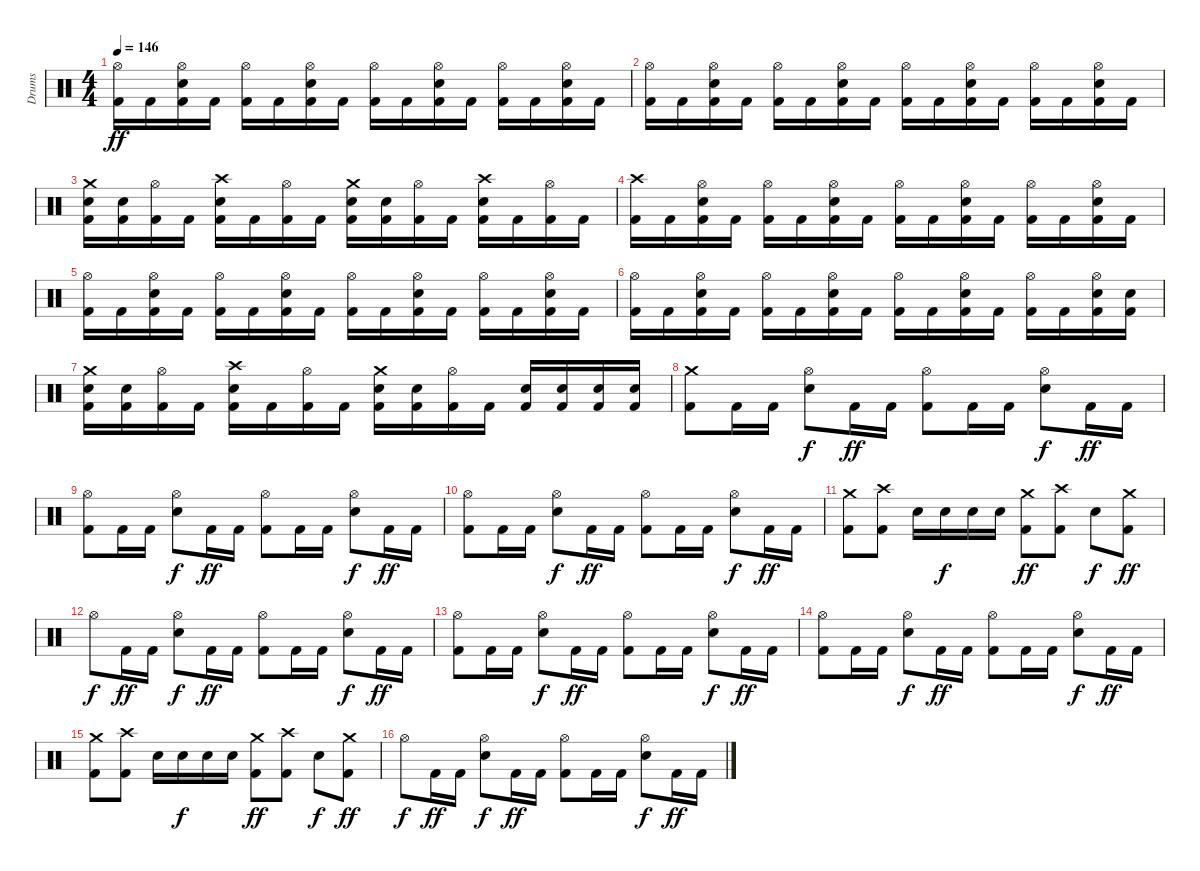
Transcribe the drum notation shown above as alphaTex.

\track ("Drums" "Drums") {instrument percussion}
\staff {score}
\articulation defaults
\ts (4 4)
\tempo 146
\clef neutral
\ks c
("Kick (hit) 2" "Hi-Hat (open)").16{dy ff} "Kick (hit) 2".16 ("Kick (hit) 2" "Electric Snare (hit)" "Hi-Hat (open)").16 "Kick (hit) 2".16 ("Kick (hit) 2" "Hi-Hat (open)").16 "Kick (hit) 2".16 ("Kick (hit) 2" "Electric Snare (hit)" "Hi-Hat (open)").16 "Kick (hit) 2".16 ("Kick (hit) 2" "Hi-Hat (open)").16 "Kick (hit) 2".16 ("Kick (hit) 2" "Electric Snare (hit)" "Hi-Hat (open)").16 "Kick (hit) 2".16 ("Kick (hit) 2" "Hi-Hat (open)").16 "Kick (hit) 2".16 ("Kick (hit) 2" "Electric Snare (hit)" "Hi-Hat (open)").16 "Kick (hit) 2".16 |
("Kick (hit) 2" "Hi-Hat (open)").16 "Kick (hit) 2".16 ("Kick (hit) 2" "Electric Snare (hit)" "Hi-Hat (open)").16 "Kick (hit) 2".16 ("Kick (hit) 2" "Hi-Hat (open)").16 "Kick (hit) 2".16 ("Kick (hit) 2" "Electric Snare (hit)" "Hi-Hat (open)").16 "Kick (hit) 2".16 ("Kick (hit) 2" "Hi-Hat (open)").16 "Kick (hit) 2".16 ("Kick (hit) 2" "Electric Snare (hit)" "Hi-Hat (open)").16 "Kick (hit) 2".16 ("Kick (hit) 2" "Hi-Hat (open)").16 "Kick (hit) 2".16 ("Kick (hit) 2" "Electric Snare (hit)" "Hi-Hat (open)").16 "Kick (hit) 2".16 |
("Kick (hit) 2" "Electric Snare (hit)" "Crash medium (hit)").16 ("Kick (hit) 2" "Electric Snare (hit)").16 ("Kick (hit) 2" "Hi-Hat (open)").16 "Kick (hit) 2".16 ("Kick (hit) 2" "Electric Snare (hit)" "Crash high (hit)").16 "Kick (hit) 2".16 ("Kick (hit) 2" "Hi-Hat (open)").16 "Kick (hit) 2".16 ("Kick (hit) 2" "Electric Snare (hit)" "Crash medium (hit)").16 ("Kick (hit) 2" "Electric Snare (hit)").16 ("Kick (hit) 2" "Hi-Hat (open)").16 "Kick (hit) 2".16 ("Kick (hit) 2" "Electric Snare (hit)" "Crash high (hit)").16 "Kick (hit) 2".16 ("Kick (hit) 2" "Hi-Hat (open)").16 "Kick (hit) 2".16 |
("Kick (hit) 2" "Crash high (hit)").16 "Kick (hit) 2".16 ("Kick (hit) 2" "Electric Snare (hit)" "Hi-Hat (open)").16 "Kick (hit) 2".16 ("Kick (hit) 2" "Hi-Hat (open)").16 "Kick (hit) 2".16 ("Kick (hit) 2" "Electric Snare (hit)" "Hi-Hat (open)").16 "Kick (hit) 2".16 ("Kick (hit) 2" "Hi-Hat (open)").16 "Kick (hit) 2".16 ("Kick (hit) 2" "Electric Snare (hit)" "Hi-Hat (open)").16 "Kick (hit) 2".16 ("Kick (hit) 2" "Hi-Hat (open)").16 "Kick (hit) 2".16 ("Kick (hit) 2" "Electric Snare (hit)" "Hi-Hat (open)").16 "Kick (hit) 2".16 |
("Kick (hit) 2" "Hi-Hat (open)").16 "Kick (hit) 2".16 ("Kick (hit) 2" "Electric Snare (hit)" "Hi-Hat (open)").16 "Kick (hit) 2".16 ("Kick (hit) 2" "Hi-Hat (open)").16 "Kick (hit) 2".16 ("Kick (hit) 2" "Electric Snare (hit)" "Hi-Hat (open)").16 "Kick (hit) 2".16 ("Kick (hit) 2" "Hi-Hat (open)").16 "Kick (hit) 2".16 ("Kick (hit) 2" "Electric Snare (hit)" "Hi-Hat (open)").16 "Kick (hit) 2".16 ("Kick (hit) 2" "Hi-Hat (open)").16 "Kick (hit) 2".16 ("Kick (hit) 2" "Electric Snare (hit)" "Hi-Hat (open)").16 "Kick (hit) 2".16 |
("Kick (hit) 2" "Hi-Hat (open)").16 "Kick (hit) 2".16 ("Kick (hit) 2" "Electric Snare (hit)" "Hi-Hat (open)").16 "Kick (hit) 2".16 ("Kick (hit) 2" "Hi-Hat (open)").16 "Kick (hit) 2".16 ("Kick (hit) 2" "Electric Snare (hit)" "Hi-Hat (open)").16 "Kick (hit) 2".16 ("Kick (hit) 2" "Hi-Hat (open)").16 "Kick (hit) 2".16 ("Kick (hit) 2" "Electric Snare (hit)" "Hi-Hat (open)").16 "Kick (hit) 2".16 ("Kick (hit) 2" "Hi-Hat (open)").16 "Kick (hit) 2".16 ("Kick (hit) 2" "Electric Snare (hit)" "Hi-Hat (open)").16 ("Kick (hit) 2" "Electric Snare (hit)").16 |
("Kick (hit) 2" "Electric Snare (hit)" "Crash medium (hit)").16 ("Kick (hit) 2" "Electric Snare (hit)").16 ("Kick (hit) 2" "Hi-Hat (open)").16 "Kick (hit) 2".16 ("Kick (hit) 2" "Electric Snare (hit)" "Crash high (hit)").16 "Kick (hit) 2".16 ("Kick (hit) 2" "Hi-Hat (open)").16 "Kick (hit) 2".16 ("Kick (hit) 2" "Electric Snare (hit)" "Crash medium (hit)").16 ("Kick (hit) 2" "Electric Snare (hit)").16 ("Kick (hit) 2" "Hi-Hat (open)").16 "Kick (hit) 2".16 ("Kick (hit) 2" "Electric Snare (hit)").16 ("Kick (hit) 2" "Electric Snare (hit)").16 ("Kick (hit) 2" "Electric Snare (hit)").16 ("Kick (hit) 2" "Electric Snare (hit)").16 |
("Kick (hit) 2" "Crash medium (hit)").8 "Kick (hit) 2".16 "Kick (hit) 2".16 ("Electric Snare (hit)" "Hi-Hat (open)").8{dy f} "Kick (hit) 2".16{dy ff} "Kick (hit) 2".16 ("Kick (hit) 2" "Hi-Hat (open)").8 "Kick (hit) 2".16 "Kick (hit) 2".16 ("Electric Snare (hit)" "Hi-Hat (open)").8{dy f} "Kick (hit) 2".16{dy ff} "Kick (hit) 2".16 |
("Kick (hit) 2" "Hi-Hat (open)").8 "Kick (hit) 2".16 "Kick (hit) 2".16 ("Electric Snare (hit)" "Hi-Hat (open)").8{dy f} "Kick (hit) 2".16{dy ff} "Kick (hit) 2".16 ("Kick (hit) 2" "Hi-Hat (open)").8 "Kick (hit) 2".16 "Kick (hit) 2".16 ("Electric Snare (hit)" "Hi-Hat (open)").8{dy f} "Kick (hit) 2".16{dy ff} "Kick (hit) 2".16 |
("Kick (hit) 2" "Hi-Hat (open)").8 "Kick (hit) 2".16 "Kick (hit) 2".16 ("Electric Snare (hit)" "Hi-Hat (open)").8{dy f} "Kick (hit) 2".16{dy ff} "Kick (hit) 2".16 ("Kick (hit) 2" "Hi-Hat (open)").8 "Kick (hit) 2".16 "Kick (hit) 2".16 ("Electric Snare (hit)" "Hi-Hat (open)").8{dy f} "Kick (hit) 2".16{dy ff} "Kick (hit) 2".16 |
("Kick (hit) 2" "Crash medium (hit)").8 ("Kick (hit) 2" "Crash high (hit)").8 "Electric Snare (hit)".16 "Electric Snare (hit)".16{dy f} "Electric Snare (hit)".16 "Electric Snare (hit)".16 ("Kick (hit) 2" "Crash medium (hit)").8{dy ff} ("Kick (hit) 2" "Crash high (hit)").8 "Electric Snare (hit)".8{dy f} ("Kick (hit) 2" "Crash medium (hit)").8{dy ff} |
"Hi-Hat (open)".8{dy f} "Kick (hit) 2".16{dy ff} "Kick (hit) 2".16 ("Electric Snare (hit)" "Hi-Hat (open)").8{dy f} "Kick (hit) 2".16{dy ff} "Kick (hit) 2".16 ("Kick (hit) 2" "Hi-Hat (open)").8 "Kick (hit) 2".16 "Kick (hit) 2".16 ("Electric Snare (hit)" "Hi-Hat (open)").8{dy f} "Kick (hit) 2".16{dy ff} "Kick (hit) 2".16 |
("Kick (hit) 2" "Hi-Hat (open)").8 "Kick (hit) 2".16 "Kick (hit) 2".16 ("Electric Snare (hit)" "Hi-Hat (open)").8{dy f} "Kick (hit) 2".16{dy ff} "Kick (hit) 2".16 ("Kick (hit) 2" "Hi-Hat (open)").8 "Kick (hit) 2".16 "Kick (hit) 2".16 ("Electric Snare (hit)" "Hi-Hat (open)").8{dy f} "Kick (hit) 2".16{dy ff} "Kick (hit) 2".16 |
("Kick (hit) 2" "Hi-Hat (open)").8 "Kick (hit) 2".16 "Kick (hit) 2".16 ("Electric Snare (hit)" "Hi-Hat (open)").8{dy f} "Kick (hit) 2".16{dy ff} "Kick (hit) 2".16 ("Kick (hit) 2" "Hi-Hat (open)").8 "Kick (hit) 2".16 "Kick (hit) 2".16 ("Electric Snare (hit)" "Hi-Hat (open)").8{dy f} "Kick (hit) 2".16{dy ff} "Kick (hit) 2".16 |
("Kick (hit) 2" "Crash medium (hit)").8 ("Kick (hit) 2" "Crash high (hit)").8 "Electric Snare (hit)".16 "Electric Snare (hit)".16{dy f} "Electric Snare (hit)".16 "Electric Snare (hit)".16 ("Kick (hit) 2" "Crash medium (hit)").8{dy ff} ("Kick (hit) 2" "Crash high (hit)").8 "Electric Snare (hit)".8{dy f} ("Kick (hit) 2" "Crash medium (hit)").8{dy ff} |
"Hi-Hat (open)".8{dy f} "Kick (hit) 2".16{dy ff} "Kick (hit) 2".16 ("Electric Snare (hit)" "Hi-Hat (open)").8{dy f} "Kick (hit) 2".16{dy ff} "Kick (hit) 2".16 ("Kick (hit) 2" "Hi-Hat (open)").8 "Kick (hit) 2".16 "Kick (hit) 2".16 ("Electric Snare (hit)" "Hi-Hat (open)").8{dy f} "Kick (hit) 2".16{dy ff} "Kick (hit) 2".16
